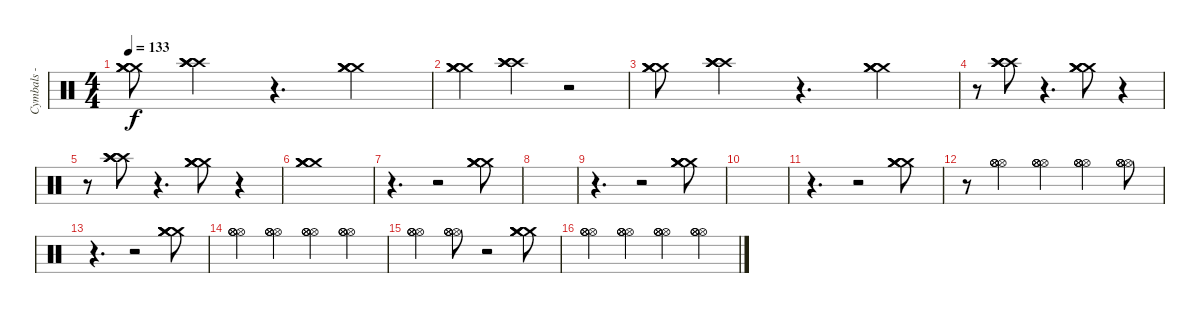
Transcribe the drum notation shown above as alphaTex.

\track ("Cymbals - Joe Daniels" "Cymbals - ") {instrument percussion}
\staff {score}
\articulation defaults
\ts (4 4)
\tempo 133
\clef neutral
\ks c
("Crash medium (hit)" "Crash medium (hit)" "Crash medium (hit)" "Crash medium (hit)").8{dy f} ("Crash high (hit)" "Crash high (hit)" "Crash high (hit)" "Crash high (hit)").4 r.4{d} ("Crash medium (hit)" "Crash medium (hit)" "Crash medium (hit)" "Crash medium (hit)").4 |
("Crash medium (hit)" "Crash medium (hit)" "Crash medium (hit)" "Crash medium (hit)").4 ("Crash high (hit)" "Crash high (hit)" "Crash high (hit)" "Crash high (hit)").4 r.2 |
("Crash medium (hit)" "Crash medium (hit)" "Crash medium (hit)" "Crash medium (hit)").8 ("Crash high (hit)" "Crash high (hit)" "Crash high (hit)" "Crash high (hit)").4 r.4{d} ("Crash medium (hit)" "Crash medium (hit)" "Crash medium (hit)" "Crash medium (hit)").4 |
r.8 ("Crash high (hit)" "Crash high (hit)" "Crash high (hit)" "Crash high (hit)").8 r.4{d} ("Crash medium (hit)" "Crash medium (hit)" "Crash medium (hit)" "Crash medium (hit)").8 r.4 |
r.8 ("Crash high (hit)" "Crash high (hit)" "Crash high (hit)" "Crash high (hit)").8 r.4{d} ("Crash medium (hit)" "Crash medium (hit)" "Crash medium (hit)" "Crash medium (hit)").8 r.4 |
("Crash medium (hit)" "Crash medium (hit)" "Crash medium (hit)" "Crash medium (hit)").1 |
r.4{d} r.2 ("Crash medium (hit)" "Crash medium (hit)" "Crash medium (hit)" "Crash medium (hit)").8 |
|
r.4{d} r.2 ("Crash medium (hit)" "Crash medium (hit)" "Crash medium (hit)" "Crash medium (hit)").8 |
|
r.4{d} r.2 ("Crash medium (hit)" "Crash medium (hit)" "Crash medium (hit)" "Crash medium (hit)").8 |
r.8 ("Hi-Hat (open)" "Hi-Hat (open)" "Hi-Hat (open)" "Hi-Hat (open)").4 ("Hi-Hat (open)" "Hi-Hat (open)" "Hi-Hat (open)" "Hi-Hat (open)").4 ("Hi-Hat (open)" "Hi-Hat (open)" "Hi-Hat (open)" "Hi-Hat (open)").4 ("Hi-Hat (open)" "Hi-Hat (open)" "Hi-Hat (open)" "Hi-Hat (open)").8 |
r.4{d} r.2 ("Crash medium (hit)" "Crash medium (hit)" "Crash medium (hit)" "Crash medium (hit)").8 |
("Hi-Hat (open)" "Hi-Hat (open)" "Hi-Hat (open)" "Hi-Hat (open)").4 ("Hi-Hat (open)" "Hi-Hat (open)" "Hi-Hat (open)" "Hi-Hat (open)").4 ("Hi-Hat (open)" "Hi-Hat (open)" "Hi-Hat (open)" "Hi-Hat (open)").4 ("Hi-Hat (open)" "Hi-Hat (open)" "Hi-Hat (open)" "Hi-Hat (open)").4 |
("Hi-Hat (open)" "Hi-Hat (open)" "Hi-Hat (open)" "Hi-Hat (open)").4 ("Hi-Hat (open)" "Hi-Hat (open)" "Hi-Hat (open)" "Hi-Hat (open)").8 r.2 ("Crash medium (hit)" "Crash medium (hit)" "Crash medium (hit)" "Crash medium (hit)").8 |
("Hi-Hat (open)" "Hi-Hat (open)" "Hi-Hat (open)" "Hi-Hat (open)").4 ("Hi-Hat (open)" "Hi-Hat (open)" "Hi-Hat (open)" "Hi-Hat (open)").4 ("Hi-Hat (open)" "Hi-Hat (open)" "Hi-Hat (open)" "Hi-Hat (open)").4 ("Hi-Hat (open)" "Hi-Hat (open)" "Hi-Hat (open)" "Hi-Hat (open)").4
